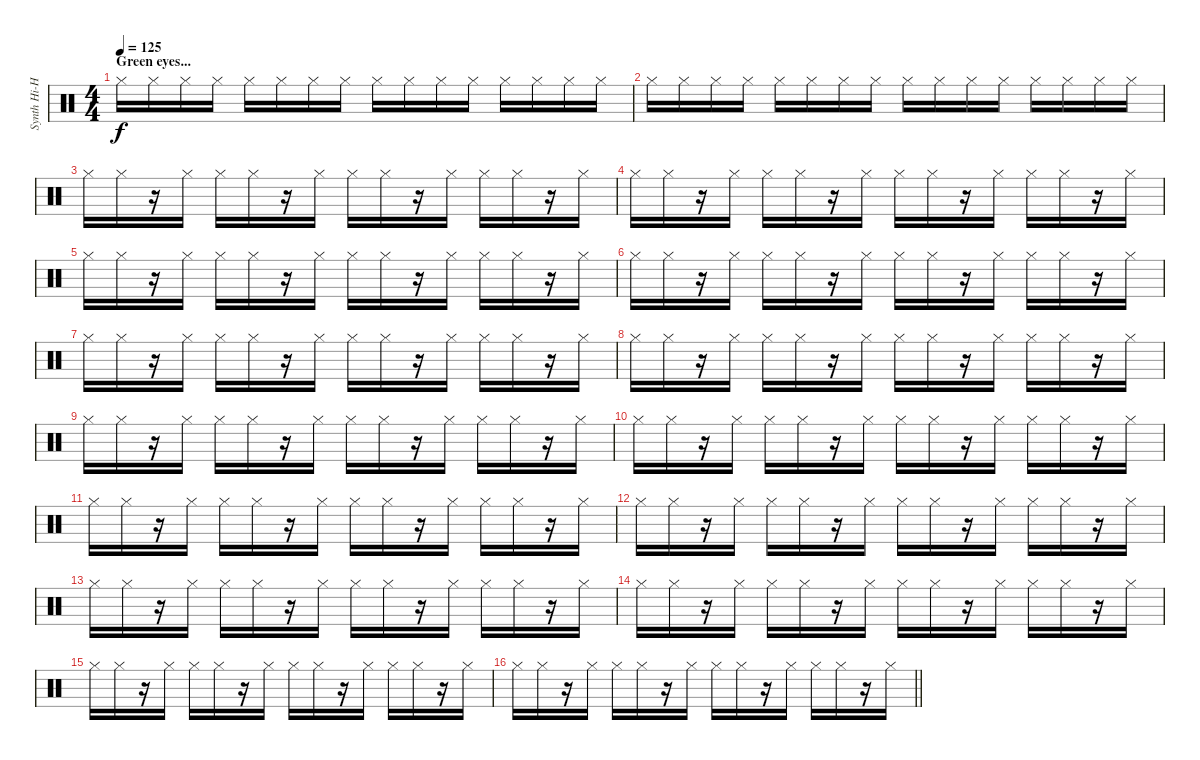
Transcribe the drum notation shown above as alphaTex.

\track ("Synth Hi-Hat (Gillian Gilbert)" "Synth Hi-H") {instrument percussion}
\staff {score}
\articulation defaults
\ts (4 4)
\section ("" "Green eyes...")
\tempo 125
\clef neutral
\ks c "Hi-Hat (closed)".16{dy f} "Hi-Hat (closed)".16 "Hi-Hat (closed)".16 "Hi-Hat (closed)".16 "Hi-Hat (closed)".16 "Hi-Hat (closed)".16 "Hi-Hat (closed)".16 "Hi-Hat (closed)".16 "Hi-Hat (closed)".16 "Hi-Hat (closed)".16 "Hi-Hat (closed)".16 "Hi-Hat (closed)".16 "Hi-Hat (closed)".16 "Hi-Hat (closed)".16 "Hi-Hat (closed)".16 "Hi-Hat (closed)".16
|
"Hi-Hat (closed)".16 "Hi-Hat (closed)".16 "Hi-Hat (closed)".16 "Hi-Hat (closed)".16 "Hi-Hat (closed)".16 "Hi-Hat (closed)".16 "Hi-Hat (closed)".16 "Hi-Hat (closed)".16 "Hi-Hat (closed)".16 "Hi-Hat (closed)".16 "Hi-Hat (closed)".16 "Hi-Hat (closed)".16 "Hi-Hat (closed)".16 "Hi-Hat (closed)".16 "Hi-Hat (closed)".16 "Hi-Hat (closed)".16 |
"Hi-Hat (closed)".16 "Hi-Hat (closed)".16 r.16 "Hi-Hat (closed)".16 "Hi-Hat (closed)".16 "Hi-Hat (closed)".16 r.16 "Hi-Hat (closed)".16 "Hi-Hat (closed)".16 "Hi-Hat (closed)".16 r.16 "Hi-Hat (closed)".16 "Hi-Hat (closed)".16 "Hi-Hat (closed)".16 r.16 "Hi-Hat (closed)".16 |
"Hi-Hat (closed)".16 "Hi-Hat (closed)".16 r.16 "Hi-Hat (closed)".16 "Hi-Hat (closed)".16 "Hi-Hat (closed)".16 r.16 "Hi-Hat (closed)".16 "Hi-Hat (closed)".16 "Hi-Hat (closed)".16 r.16 "Hi-Hat (closed)".16 "Hi-Hat (closed)".16 "Hi-Hat (closed)".16 r.16 "Hi-Hat (closed)".16 |
"Hi-Hat (closed)".16 "Hi-Hat (closed)".16 r.16 "Hi-Hat (closed)".16 "Hi-Hat (closed)".16 "Hi-Hat (closed)".16 r.16 "Hi-Hat (closed)".16 "Hi-Hat (closed)".16 "Hi-Hat (closed)".16 r.16 "Hi-Hat (closed)".16 "Hi-Hat (closed)".16 "Hi-Hat (closed)".16 r.16 "Hi-Hat (closed)".16 |
"Hi-Hat (closed)".16 "Hi-Hat (closed)".16 r.16 "Hi-Hat (closed)".16 "Hi-Hat (closed)".16 "Hi-Hat (closed)".16 r.16 "Hi-Hat (closed)".16 "Hi-Hat (closed)".16 "Hi-Hat (closed)".16 r.16 "Hi-Hat (closed)".16 "Hi-Hat (closed)".16 "Hi-Hat (closed)".16 r.16 "Hi-Hat (closed)".16 |
"Hi-Hat (closed)".16 "Hi-Hat (closed)".16 r.16 "Hi-Hat (closed)".16 "Hi-Hat (closed)".16 "Hi-Hat (closed)".16 r.16 "Hi-Hat (closed)".16 "Hi-Hat (closed)".16 "Hi-Hat (closed)".16 r.16 "Hi-Hat (closed)".16 "Hi-Hat (closed)".16 "Hi-Hat (closed)".16 r.16 "Hi-Hat (closed)".16 |
"Hi-Hat (closed)".16 "Hi-Hat (closed)".16 r.16 "Hi-Hat (closed)".16 "Hi-Hat (closed)".16 "Hi-Hat (closed)".16 r.16 "Hi-Hat (closed)".16 "Hi-Hat (closed)".16 "Hi-Hat (closed)".16 r.16 "Hi-Hat (closed)".16 "Hi-Hat (closed)".16 "Hi-Hat (closed)".16 r.16 "Hi-Hat (closed)".16 |
"Hi-Hat (closed)".16 "Hi-Hat (closed)".16 r.16 "Hi-Hat (closed)".16 "Hi-Hat (closed)".16 "Hi-Hat (closed)".16 r.16 "Hi-Hat (closed)".16 "Hi-Hat (closed)".16 "Hi-Hat (closed)".16 r.16 "Hi-Hat (closed)".16 "Hi-Hat (closed)".16 "Hi-Hat (closed)".16 r.16 "Hi-Hat (closed)".16 |
"Hi-Hat (closed)".16 "Hi-Hat (closed)".16 r.16 "Hi-Hat (closed)".16 "Hi-Hat (closed)".16 "Hi-Hat (closed)".16 r.16 "Hi-Hat (closed)".16 "Hi-Hat (closed)".16 "Hi-Hat (closed)".16 r.16 "Hi-Hat (closed)".16 "Hi-Hat (closed)".16 "Hi-Hat (closed)".16 r.16 "Hi-Hat (closed)".16 |
"Hi-Hat (closed)".16 "Hi-Hat (closed)".16 r.16 "Hi-Hat (closed)".16 "Hi-Hat (closed)".16 "Hi-Hat (closed)".16 r.16 "Hi-Hat (closed)".16 "Hi-Hat (closed)".16 "Hi-Hat (closed)".16 r.16 "Hi-Hat (closed)".16 "Hi-Hat (closed)".16 "Hi-Hat (closed)".16 r.16 "Hi-Hat (closed)".16 |
"Hi-Hat (closed)".16 "Hi-Hat (closed)".16 r.16 "Hi-Hat (closed)".16 "Hi-Hat (closed)".16 "Hi-Hat (closed)".16 r.16 "Hi-Hat (closed)".16 "Hi-Hat (closed)".16 "Hi-Hat (closed)".16 r.16 "Hi-Hat (closed)".16 "Hi-Hat (closed)".16 "Hi-Hat (closed)".16 r.16 "Hi-Hat (closed)".16 |
"Hi-Hat (closed)".16 "Hi-Hat (closed)".16 r.16 "Hi-Hat (closed)".16 "Hi-Hat (closed)".16 "Hi-Hat (closed)".16 r.16 "Hi-Hat (closed)".16 "Hi-Hat (closed)".16 "Hi-Hat (closed)".16 r.16 "Hi-Hat (closed)".16 "Hi-Hat (closed)".16 "Hi-Hat (closed)".16 r.16 "Hi-Hat (closed)".16 |
"Hi-Hat (closed)".16 "Hi-Hat (closed)".16 r.16 "Hi-Hat (closed)".16 "Hi-Hat (closed)".16 "Hi-Hat (closed)".16 r.16 "Hi-Hat (closed)".16 "Hi-Hat (closed)".16 "Hi-Hat (closed)".16 r.16 "Hi-Hat (closed)".16 "Hi-Hat (closed)".16 "Hi-Hat (closed)".16 r.16 "Hi-Hat (closed)".16 |
"Hi-Hat (closed)".16 "Hi-Hat (closed)".16 r.16 "Hi-Hat (closed)".16 "Hi-Hat (closed)".16 "Hi-Hat (closed)".16 r.16 "Hi-Hat (closed)".16 "Hi-Hat (closed)".16 "Hi-Hat (closed)".16 r.16 "Hi-Hat (closed)".16 "Hi-Hat (closed)".16 "Hi-Hat (closed)".16 r.16 "Hi-Hat (closed)".16 |
\barLineRight lightlight "Hi-Hat (closed)".16 "Hi-Hat (closed)".16
r.16 "Hi-Hat (closed)".16 "Hi-Hat (closed)".16 "Hi-Hat (closed)".16 r.16 "Hi-Hat (closed)".16 "Hi-Hat (closed)".16 "Hi-Hat (closed)".16 r.16 "Hi-Hat (closed)".16 "Hi-Hat (closed)".16 "Hi-Hat (closed)".16 r.16 "Hi-Hat (closed)".16
